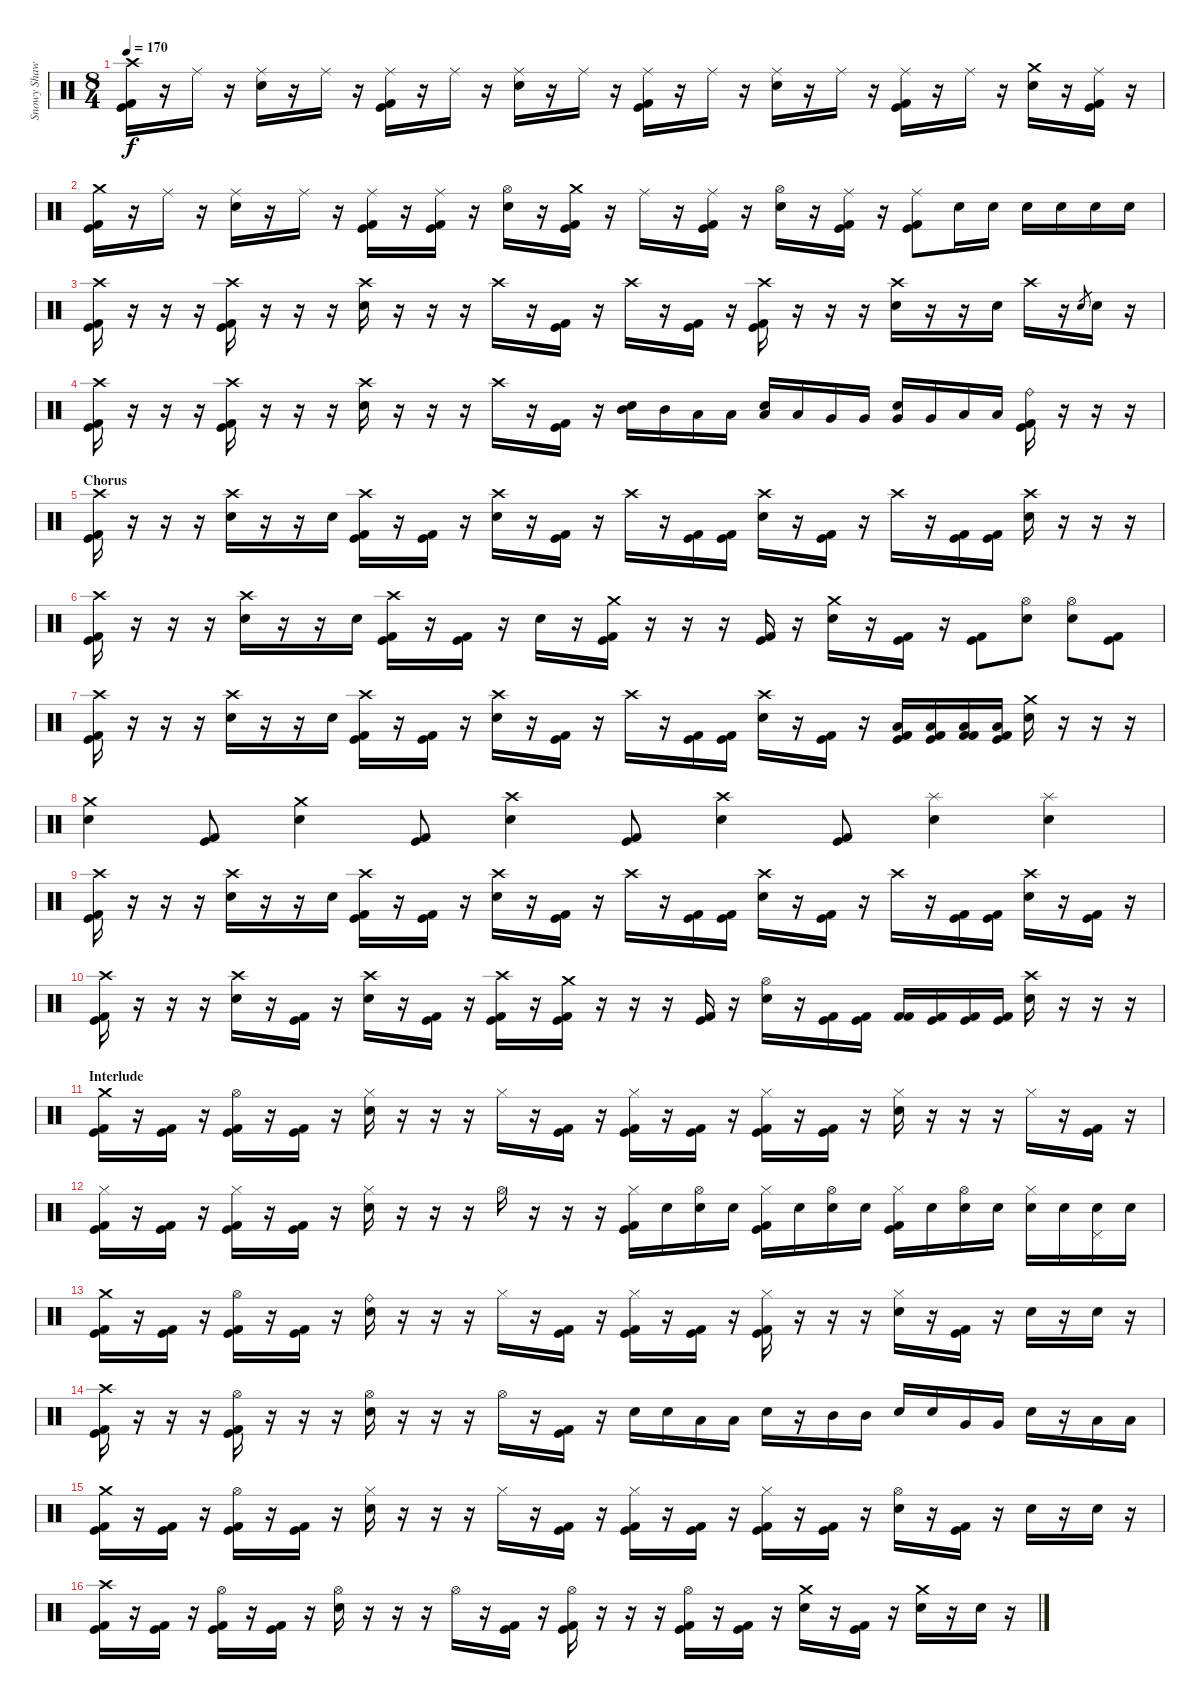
\track ("Snowy Shaw" "Snowy Shaw") {instrument percussion}
\staff {score}
\articulation defaults
\ts (8 4)
\tempo 170
\clef neutral
\ks c
("Crash high (hit)" "Kick (hit)" "Kick (hit) 2").16{dy f} r.16 "Ride (middle)".16 r.16 ("Ride (middle)" "Electric Snare (hit)").16 r.16 "Ride (middle)".16 r.16 ("Ride (middle)" "Kick (hit)" "Kick (hit) 2").16 r.16 "Ride (middle)".16 r.16 ("Ride (middle)" "Electric Snare (hit)").16 r.16 "Ride (middle)".16 r.16 ("Ride (middle)" "Kick (hit)" "Kick (hit) 2").16 r.16 "Ride (middle)".16 r.16 ("Ride (middle)" "Electric Snare (hit)").16 r.16 "Ride (middle)".16 r.16 ("Ride (middle)" "Kick (hit)" "Kick (hit) 2").16 r.16 "Ride (middle)".16 r.16 ("Crash medium (hit)" "Electric Snare (hit)").16 r.16 ("Ride (middle)" "Kick (hit)" "Kick (hit) 2").16 r.16 |
("Crash medium (hit)" "Kick (hit)" "Kick (hit) 2").16 r.16 "Ride (middle)".16 r.16 ("Ride (middle)" "Electric Snare (hit)").16 r.16 "Ride (middle)".16 r.16 ("Ride (middle)" "Kick (hit)" "Kick (hit) 2").16 r.16 ("Ride (middle)" "Kick (hit)" "Kick (hit) 2").16 r.16 ("Hi-Hat (open)" "Electric Snare (hit)").16 r.16 ("Crash medium (hit)" "Kick (hit)" "Kick (hit) 2").16 r.16 "Ride (middle)".16 r.16 ("Ride (middle)" "Kick (hit)" "Kick (hit) 2").16 r.16 ("Hi-Hat (open)" "Electric Snare (hit)").16 r.16 ("Ride (middle)" "Kick (hit)" "Kick (hit) 2").16 r.16 ("Ride (middle)" "Kick (hit)" "Kick (hit) 2").8 "Electric Snare (hit)".16 "Electric Snare (hit)".16 "Electric Snare (hit)".16 "Electric Snare (hit)".16 "Electric Snare (hit)".16 "Electric Snare (hit)".16 |
("Crash high (hit)" "Kick (hit)" "Kick (hit) 2").16 r.16 r.16 r.16 ("Crash high (hit)" "Kick (hit)" "Kick (hit) 2").16 r.16 r.16 r.16 ("Crash high (hit)" "Electric Snare (hit)").16 r.16 r.16 r.16 "Crash high (hit)".16 r.16 ("Kick (hit)" "Kick (hit) 2").16 r.16 "Crash high (hit)".16 r.16 ("Kick (hit)" "Kick (hit) 2").16 r.16 ("Crash high (hit)" "Kick (hit)" "Kick (hit) 2").16 r.16 r.16 r.16 ("Crash high (hit)" "Electric Snare (hit)").16 r.16 r.16 "Electric Snare (hit)".16 "Crash high (hit)".16 r.16 "Electric Snare (hit)".8{gr} "Electric Snare (hit)".16 r.16 |
("Crash high (hit)" "Kick (hit)" "Kick (hit) 2").16 r.16 r.16 r.16 ("Crash high (hit)" "Kick (hit)" "Kick (hit) 2").16 r.16 r.16 r.16 ("Crash high (hit)" "Electric Snare (hit)").16 r.16 r.16 r.16 "Crash high (hit)".16 r.16 ("Kick (hit)" "Kick (hit) 2").16 r.16 ("Mid Tom (hit)" "Electric Snare (hit)").16 "Mid Tom (hit)".16 "Low Tom (hit)".16 "Low Tom (hit)".16 ("Low Tom (hit)" "Electric Snare (hit)").16 "Low Tom (hit)".16 "Very Low Tom (hit)".16 "Very Low Tom (hit)".16 ("Very Low Tom (hit)" "Electric Snare (hit)").16 "Very Low Tom (hit)".16 "Low Floor Tom (hit)".16 "Low Floor Tom (hit)".16 ("Ride (bell)" "Kick (hit)" "Kick (hit) 2").16 r.16 r.16 r.16 |
\section ("" "Chorus")
("Crash high (hit)" "Kick (hit)" "Kick (hit) 2").16 r.16 r.16 r.16 ("Crash high (hit)" "Electric Snare (hit)").16 r.16 r.16 "Electric Snare (hit)".16 ("Crash high (hit)" "Kick (hit)" "Kick (hit) 2").16 r.16 ("Kick (hit)" "Kick (hit) 2").16 r.16 ("Crash high (hit)" "Electric Snare (hit)").16 r.16 ("Kick (hit)" "Kick (hit) 2").16 r.16 "Crash high (hit)".16 r.16 ("Kick (hit) 2" "Kick (hit)").16 ("Kick (hit)" "Kick (hit) 2").16 ("Crash high (hit)" "Electric Snare (hit)").16 r.16 ("Kick (hit)" "Kick (hit) 2").16 r.16 "Crash high (hit)".16 r.16 ("Kick (hit) 2" "Kick (hit)").16 ("Kick (hit) 2" "Kick (hit)").16 ("Crash high (hit)" "Electric Snare (hit)").16 r.16 r.16 r.16 |
("Crash high (hit)" "Kick (hit)" "Kick (hit) 2").16 r.16 r.16 r.16 ("Crash high (hit)" "Electric Snare (hit)").16 r.16 r.16 "Electric Snare (hit)".16 ("Crash high (hit)" "Kick (hit)" "Kick (hit) 2").16 r.16 ("Kick (hit)" "Kick (hit) 2").16 r.16 "Electric Snare (hit)".16 r.16 ("Crash medium (hit)" "Kick (hit)" "Kick (hit) 2").16 r.16 r.16 r.16 ("Kick (hit) 2" "Kick (hit)").16 r.16 ("Crash medium (hit)" "Electric Snare (hit)").16 r.16 ("Kick (hit)" "Kick (hit) 2").16 r.16 ("Kick (hit)" "Kick (hit) 2").8 ("Hi-Hat (open)" "Electric Snare (hit)").8 ("Hi-Hat (open)" "Electric Snare (hit)").8 ("Kick (hit)" "Kick (hit) 2").8 |
("Crash high (hit)" "Kick (hit)" "Kick (hit) 2").16 r.16 r.16 r.16 ("Crash high (hit)" "Electric Snare (hit)").16 r.16 r.16 "Electric Snare (hit)".16 ("Crash high (hit)" "Kick (hit)" "Kick (hit) 2").16 r.16 ("Kick (hit)" "Kick (hit) 2").16 r.16 ("Crash high (hit)" "Electric Snare (hit)").16 r.16 ("Kick (hit)" "Kick (hit) 2").16 r.16 "Crash high (hit)".16 r.16 ("Kick (hit) 2" "Kick (hit)").16 ("Kick (hit)" "Kick (hit) 2").16 ("Crash high (hit)" "Electric Snare (hit)").16 r.16 ("Kick (hit)" "Kick (hit) 2").16 r.16 ("Low Tom (hit)" "Kick (hit)" "Kick (hit) 2").16 ("Low Tom (hit)" "Kick (hit)" "Kick (hit) 2").16 ("Low Tom (hit)" "Kick (hit) 2" "Kick (hit) 2").16 ("Low Tom (hit)" "Kick (hit)" "Kick (hit) 2").16 ("Crash medium (hit)" "Electric Snare (hit)").16 r.16 r.16 r.16 |
("Crash medium (hit)" "Electric Snare (hit)").4 ("Kick (hit)" "Kick (hit) 2").8 ("Crash medium (hit)" "Electric Snare (hit)").4 ("Kick (hit)" "Kick (hit) 2").8 ("Crash high (hit)" "Electric Snare (hit)").4 ("Kick (hit)" "Kick (hit) 2").8 ("Crash high (hit)" "Electric Snare (hit)").4 ("Kick (hit)" "Kick (hit) 2").8 ("Splash (hit)" "Electric Snare (hit)").4 ("Splash (hit)" "Electric Snare (hit)").4 |
("Crash high (hit)" "Kick (hit)" "Kick (hit) 2").16 r.16 r.16 r.16 ("Crash high (hit)" "Electric Snare (hit)").16 r.16 r.16 "Electric Snare (hit)".16 ("Crash high (hit)" "Kick (hit)" "Kick (hit) 2").16 r.16 ("Kick (hit)" "Kick (hit) 2").16 r.16 ("Crash high (hit)" "Electric Snare (hit)").16 r.16 ("Kick (hit)" "Kick (hit) 2").16 r.16 "Crash high (hit)".16 r.16 ("Kick (hit) 2" "Kick (hit)").16 ("Kick (hit)" "Kick (hit) 2").16 ("Crash high (hit)" "Electric Snare (hit)").16 r.16 ("Kick (hit)" "Kick (hit) 2").16 r.16 "Crash high (hit)".16 r.16 ("Kick (hit) 2" "Kick (hit)").16 ("Kick (hit) 2" "Kick (hit)").16 ("Crash high (hit)" "Electric Snare (hit)").16 r.16 ("Kick (hit)" "Kick (hit) 2").16 r.16 |
("Crash high (hit)" "Kick (hit)" "Kick (hit) 2").16 r.16 r.16 r.16 ("Crash high (hit)" "Electric Snare (hit)").16 r.16 ("Kick (hit)" "Kick (hit) 2").16 r.16 ("Crash high (hit)" "Electric Snare (hit)").16 r.16 ("Kick (hit)" "Kick (hit) 2").16 r.16 ("Crash high (hit)" "Kick (hit)" "Kick (hit) 2").16 r.16 ("Crash medium (hit)" "Kick (hit)" "Kick (hit) 2").16 r.16 r.16 r.16 ("Kick (hit)" "Kick (hit) 2").16 r.16 ("Hi-Hat (open)" "Electric Snare (hit)").16 r.16 ("Kick (hit)" "Kick (hit) 2").16 ("Kick (hit)" "Kick (hit) 2").16 ("Kick (hit) 2" "Kick (hit) 2").16 ("Kick (hit)" "Kick (hit) 2").16 ("Kick (hit)" "Kick (hit) 2").16 ("Kick (hit)" "Kick (hit) 2").16 ("Crash high (hit)" "Electric Snare (hit)").16 r.16 r.16 r.16 |
\section ("" "Interlude")
("Crash medium (hit)" "Kick (hit)" "Kick (hit) 2").16 r.16 ("Kick (hit)" "Kick (hit) 2").16 r.16 ("Hi-Hat (open)" "Kick (hit)" "Kick (hit) 2").16 r.16 ("Kick (hit)" "Kick (hit) 2").16 r.16 ("Hi-Hat (closed)" "Electric Snare (hit)").16 r.16 r.16 r.16 "Hi-Hat (closed)".16 r.16 ("Kick (hit)" "Kick (hit) 2").16 r.16 ("Hi-Hat (closed)" "Kick (hit)" "Kick (hit) 2").16 r.16 ("Kick (hit)" "Kick (hit) 2").16 r.16 ("Hi-Hat (closed)" "Kick (hit)" "Kick (hit) 2").16 r.16 ("Kick (hit)" "Kick (hit) 2").16 r.16 ("Hi-Hat (closed)" "Electric Snare (hit)").16 r.16 r.16 r.16 "Hi-Hat (closed)".16 r.16 ("Kick (hit)" "Kick (hit) 2").16 r.16 |
("Hi-Hat (closed)" "Kick (hit)" "Kick (hit) 2").16 r.16 ("Kick (hit)" "Kick (hit) 2").16 r.16 ("Hi-Hat (closed)" "Kick (hit)" "Kick (hit) 2").16 r.16 ("Kick (hit)" "Kick (hit) 2").16 r.16 ("Hi-Hat (closed)" "Electric Snare (hit)").16 r.16 r.16 r.16 "Hi-Hat (open)".16 r.16 r.16 r.16 ("Hi-Hat (closed)" "Kick (hit)" "Kick (hit) 2").16 "Electric Snare (hit)".16 ("Hi-Hat (open)" "Electric Snare (hit)").16 "Electric Snare (hit)".16 ("Hi-Hat (closed)" "Kick (hit)" "Kick (hit) 2").16 "Electric Snare (hit)".16 ("Hi-Hat (open)" "Electric Snare (hit)").16 "Electric Snare (hit)".16 ("Hi-Hat (closed)" "Kick (hit)" "Kick (hit) 2").16 "Electric Snare (hit)".16 ("Hi-Hat (open)" "Electric Snare (hit)").16 "Electric Snare (hit)".16 ("Hi-Hat (closed)" "Electric Snare (hit)").16 "Electric Snare (hit)".16 ("Pedal Hi-Hat (hit)" "Electric Snare (hit)").16 "Electric Snare (hit)".16 |
("Crash medium (hit)" "Kick (hit)" "Kick (hit) 2").16 r.16 ("Kick (hit)" "Kick (hit) 2").16 r.16 ("Hi-Hat (open)" "Kick (hit)" "Kick (hit) 2").16 r.16 ("Kick (hit)" "Kick (hit) 2").16 r.16 ("Ride (bell)" "Electric Snare (hit)").16 r.16 r.16 r.16 "Hi-Hat (closed)".16 r.16 ("Kick (hit)" "Kick (hit) 2").16 r.16 ("Hi-Hat (closed)" "Kick (hit)" "Kick (hit) 2").16 r.16 ("Kick (hit)" "Kick (hit) 2").16 r.16 ("Hi-Hat (closed)" "Kick (hit)" "Kick (hit) 2").16 r.16 r.16 r.16 ("Hi-Hat (closed)" "Electric Snare (hit)").16 r.16 ("Kick (hit)" "Kick (hit) 2").16 r.16 "Electric Snare (hit)".16 r.16 "Electric Snare (hit)".16 r.16 |
("Crash high (hit)" "Kick (hit)" "Kick (hit) 2").16 r.16 r.16 r.16 ("Hi-Hat (open)" "Kick (hit)" "Kick (hit) 2").16 r.16 r.16 r.16 ("Hi-Hat (open)" "Electric Snare (hit)").16 r.16 r.16 r.16 "Hi-Hat (open)".16 r.16 ("Kick (hit)" "Kick (hit) 2").16 r.16 "Electric Snare (hit)".16 "Electric Snare (hit)".16 "Low Tom (hit)".16 "Low Tom (hit)".16 "Electric Snare (hit)".16 r.16 "Mid Tom (hit)".16 "Mid Tom (hit)".16 "Electric Snare (hit)".16 "Electric Snare (hit)".16 "Very Low Tom (hit)".16 "Very Low Tom (hit)".16 "Electric Snare (hit)".16 r.16 "Low Tom (hit)".16 "Low Tom (hit)".16 |
("Crash medium (hit)" "Kick (hit)" "Kick (hit) 2").16 r.16 ("Kick (hit)" "Kick (hit) 2").16 r.16 ("Hi-Hat (open)" "Kick (hit)" "Kick (hit) 2").16 r.16 ("Kick (hit)" "Kick (hit) 2").16 r.16 ("Hi-Hat (closed)" "Electric Snare (hit)").16 r.16 r.16 r.16 "Hi-Hat (closed)".16 r.16 ("Kick (hit)" "Kick (hit) 2").16 r.16 ("Hi-Hat (closed)" "Kick (hit)" "Kick (hit) 2").16 r.16 ("Kick (hit)" "Kick (hit) 2").16 r.16 ("Hi-Hat (closed)" "Kick (hit)" "Kick (hit) 2").16 r.16 ("Kick (hit)" "Kick (hit) 2").16 r.16 ("Hi-Hat (open)" "Electric Snare (hit)").16 r.16 ("Kick (hit)" "Kick (hit) 2").16 r.16 "Electric Snare (hit)".16 r.16 "Electric Snare (hit)".16 r.16 |
("Crash high (hit)" "Kick (hit)" "Kick (hit) 2").16 r.16 ("Kick (hit)" "Kick (hit) 2").16 r.16 ("Hi-Hat (open)" "Kick (hit)" "Kick (hit) 2").16 r.16 ("Kick (hit)" "Kick (hit) 2").16 r.16 ("Hi-Hat (open)" "Electric Snare (hit)").16 r.16 r.16 r.16 "Hi-Hat (open)".16 r.16 ("Kick (hit)" "Kick (hit) 2").16 r.16 ("Hi-Hat (open)" "Kick (hit)" "Kick (hit) 2").16 r.16 r.16 r.16 ("Hi-Hat (open)" "Kick (hit)" "Kick (hit) 2").16 r.16 ("Kick (hit)" "Kick (hit) 2").16 r.16 ("Crash medium (hit)" "Electric Snare (hit)").16 r.16 ("Kick (hit)" "Kick (hit) 2").16 r.16 ("Crash medium (hit)" "Electric Snare (hit)").16 r.16 "Electric Snare (hit)".16 r.16
